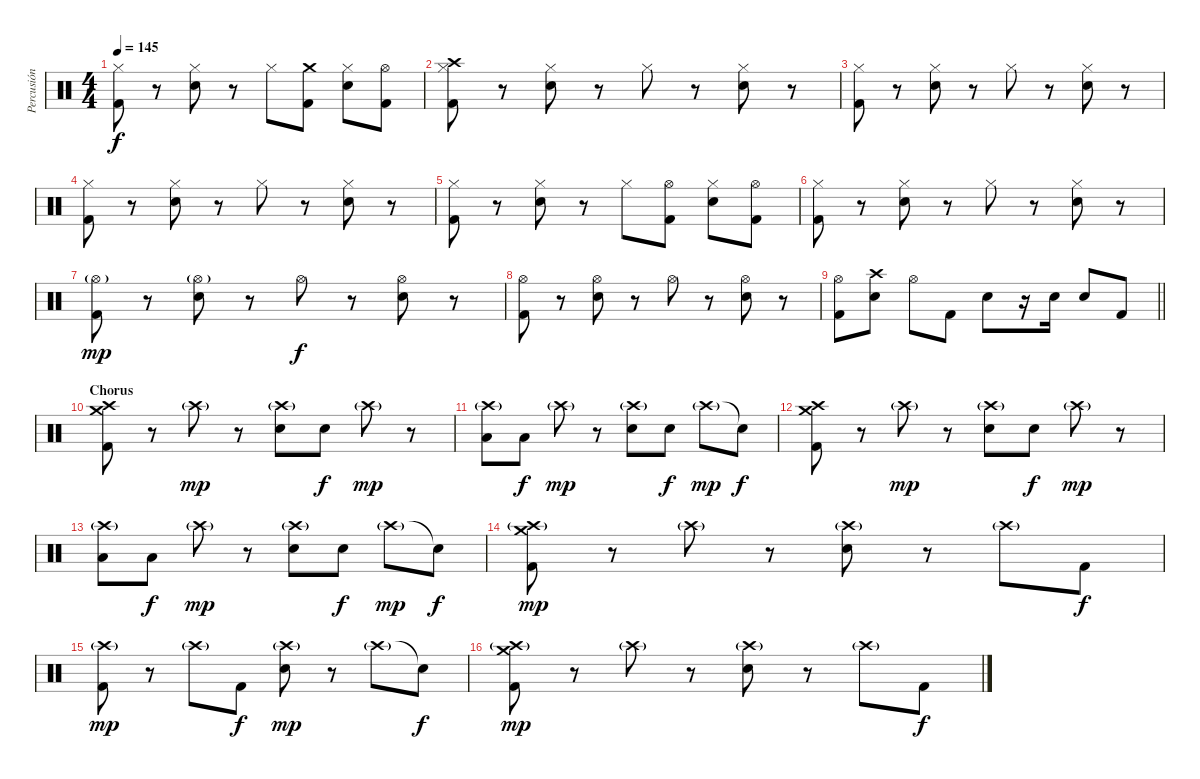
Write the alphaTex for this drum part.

\track ("Percusión" "Percusión") {instrument percussion}
\staff {score}
\articulation defaults
\ts (4 4)
\tempo 145
\clef neutral
\ks c
("Hi-Hat (closed)" "Kick (hit) 2").8{dy f} r.8 ("Hi-Hat (closed)" "Electric Snare (hit)").8 r.8 "Hi-Hat (closed)".8 ("Kick (hit) 2" "Crash medium (hit)").8 ("Hi-Hat (closed)" "Electric Snare (hit)").8 ("Kick (hit) 2" "Hi-Hat (open)").8 |
("Hi-Hat (closed)" "Kick (hit) 2" "Crash high (hit)").8 r.8 ("Hi-Hat (closed)" "Electric Snare (hit)").8 r.8 "Hi-Hat (closed)".8 r.8 ("Hi-Hat (closed)" "Electric Snare (hit)").8 r.8 |
("Hi-Hat (closed)" "Kick (hit) 2").8 r.8 ("Hi-Hat (closed)" "Electric Snare (hit)").8 r.8 "Hi-Hat (closed)".8 r.8 ("Hi-Hat (closed)" "Electric Snare (hit)").8 r.8 |
("Hi-Hat (closed)" "Kick (hit) 2").8 r.8 ("Hi-Hat (closed)" "Electric Snare (hit)").8 r.8 "Hi-Hat (closed)".8 r.8 ("Hi-Hat (closed)" "Electric Snare (hit)").8 r.8 |
("Hi-Hat (closed)" "Kick (hit) 2").8 r.8 ("Hi-Hat (closed)" "Electric Snare (hit)").8 r.8 "Hi-Hat (closed)".8 ("Kick (hit) 2" "Hi-Hat (open)").8 ("Hi-Hat (closed)" "Electric Snare (hit)").8 ("Kick (hit) 2" "Hi-Hat (open)").8 |
("Hi-Hat (closed)" "Kick (hit) 2").8 r.8 ("Hi-Hat (closed)" "Electric Snare (hit)").8 r.8 "Hi-Hat (closed)".8 r.8 ("Hi-Hat (closed)" "Electric Snare (hit)").8 r.8 |
("Hi-Hat (open)"{g} "Kick (hit) 2").8{dy mp} r.8 ("Hi-Hat (open)"{g} "Electric Snare (hit)").8 r.8 "Hi-Hat (open)".8{dy f} r.8 ("Hi-Hat (open)" "Electric Snare (hit)").8 r.8 |
("Hi-Hat (open)" "Kick (hit) 2").8 r.8 ("Hi-Hat (open)" "Electric Snare (hit)").8 r.8 "Hi-Hat (open)".8 r.8 ("Hi-Hat (open)" "Electric Snare (hit)").8 r.8 |
\barLineRight lightlight
("Hi-Hat (open)" "Kick (hit) 2").8 ("Electric Snare (hit)" "Crash high (hit)").8 "Hi-Hat (open)".8 "Kick (hit) 2".8 "Electric Snare (hit)".8 r.16 "Electric Snare (hit)".16 "Electric Snare (hit)".8 "Kick (hit) 2".8 |
\section ("" "Chorus")
("Kick (hit) 2" "Crash high (hit)" "Crash medium (hit)").8 r.8 "Crash high (hit)"{g}.8{dy mp} r.8 ("Electric Snare (hit)" "Crash high (hit)"{g}).8 "Electric Snare (hit)".8{dy f} "Crash high (hit)"{g}.8{dy mp} r.8 |
("Low Tom (hit)" "Crash high (hit)"{g}).8 "Low Tom (hit)".8{dy f} "Crash high (hit)"{g}.8{dy mp} r.8 ("Electric Snare (hit)" "Crash high (hit)"{g}).8 "Electric Snare (hit)".8{dy f} "Crash high (hit)"{g}.8{dy mp} "Snare (hit)"{t}.8{dy f} |
("Kick (hit) 2" "Crash high (hit)" "Crash medium (hit)").8 r.8 "Crash high (hit)"{g}.8{dy mp} r.8 ("Electric Snare (hit)" "Crash high (hit)"{g}).8 "Electric Snare (hit)".8{dy f} "Crash high (hit)"{g}.8{dy mp} r.8 |
("Low Tom (hit)" "Crash high (hit)"{g}).8 "Low Tom (hit)".8{dy f} "Crash high (hit)"{g}.8{dy mp} r.8 ("Electric Snare (hit)" "Crash high (hit)"{g}).8 "Electric Snare (hit)".8{dy f} "Crash high (hit)"{g}.8{dy mp} "Snare (hit)"{t}.8{dy f} |
("Kick (hit) 2" "Crash high (hit)"{g} "Crash medium (hit)").8{dy mp} r.8 "Crash high (hit)"{g}.8 r.8 ("Electric Snare (hit)" "Crash high (hit)"{g}).8 r.8 "Crash high (hit)"{g}.8 "Kick (hit) 2".8{dy f} |
("Kick (hit) 2" "Crash high (hit)"{g}).8{dy mp} r.8 "Crash high (hit)"{g}.8 "Kick (hit) 2".8{dy f} ("Electric Snare (hit)" "Crash high (hit)"{g}).8{dy mp} r.8 "Crash high (hit)"{g}.8 "Snare (hit)"{t}.8{dy f} |
("Kick (hit) 2" "Crash high (hit)"{g} "Crash medium (hit)").8{dy mp} r.8 "Crash high (hit)"{g}.8 r.8 ("Electric Snare (hit)" "Crash high (hit)"{g}).8 r.8 "Crash high (hit)"{g}.8 "Kick (hit) 2".8{dy f}
